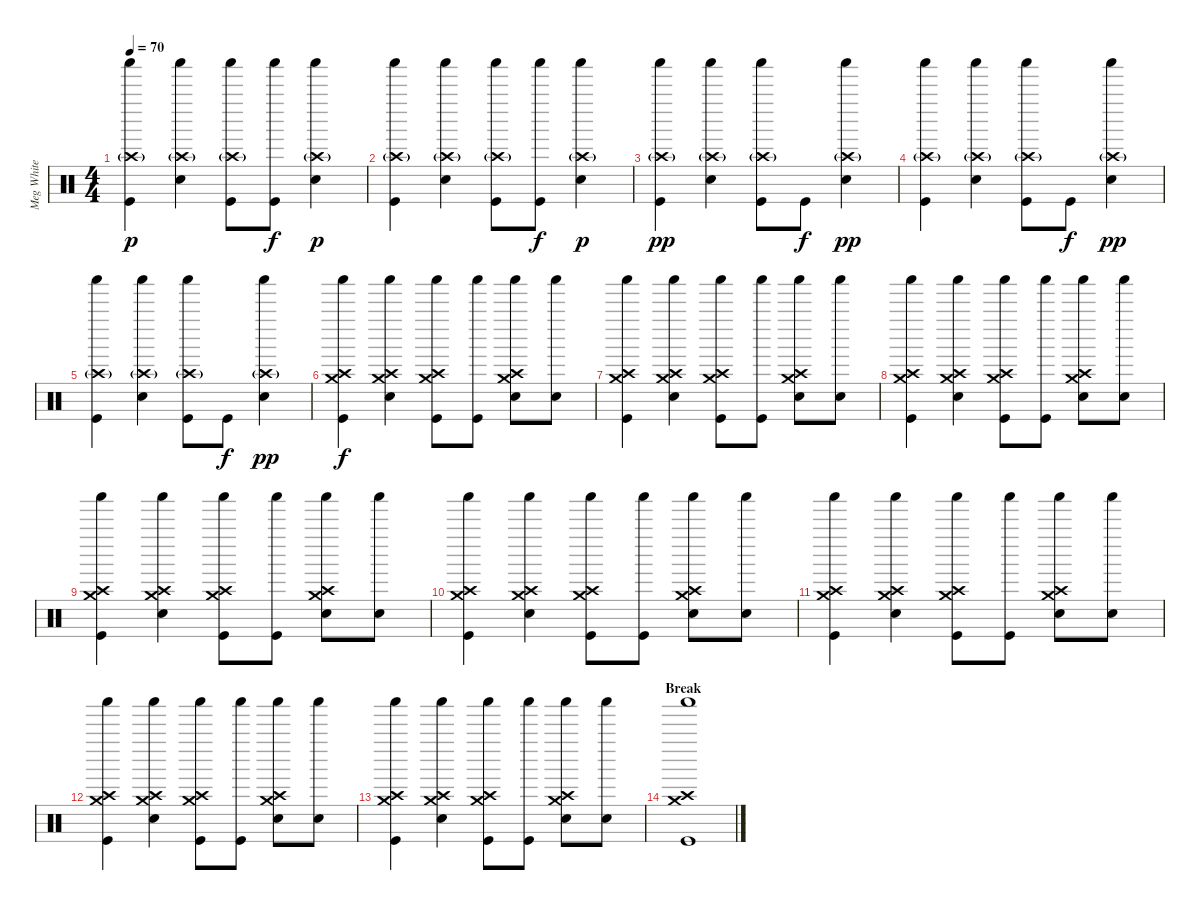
\track ("Meg White" "Meg White") {instrument percussion}
\staff {score}
\articulation defaults
\ts (4 4)
\tempo 70
\clef neutral
\ks c
("Kick (hit)" "Shaker (hit)" "Crash high (hit)"{g}).4{dy p} ("Snare (hit) 2" "Shaker (hit)" "Crash high (hit)"{g}).4 ("Kick (hit)" "Shaker (hit)" "Crash high (hit)"{g}).8 ("Kick (hit)" "Shaker (hit)").8{dy f} ("Snare (hit) 2" "Shaker (hit)" "Crash high (hit)"{g}).4{dy p} |
("Kick (hit)" "Shaker (hit)" "Crash high (hit)"{g}).4 ("Snare (hit) 2" "Shaker (hit)" "Crash high (hit)"{g}).4 ("Kick (hit)" "Shaker (hit)" "Crash high (hit)"{g}).8 ("Kick (hit)" "Shaker (hit)").8{dy f} ("Snare (hit) 2" "Shaker (hit)" "Crash high (hit)"{g}).4{dy p} |
("Kick (hit)" "Shaker (hit)" "Crash high (hit)"{g}).4{dy pp} ("Snare (hit) 2" "Shaker (hit)" "Crash high (hit)"{g}).4 ("Kick (hit)" "Shaker (hit)" "Crash high (hit)"{g}).8 "Kick (hit)".8{dy f} ("Snare (hit) 2" "Shaker (hit)" "Crash high (hit)"{g}).4{dy pp} |
("Kick (hit)" "Shaker (hit)" "Crash high (hit)"{g}).4 ("Snare (hit) 2" "Shaker (hit)" "Crash high (hit)"{g}).4 ("Kick (hit)" "Shaker (hit)" "Crash high (hit)"{g}).8 "Kick (hit)".8{dy f} ("Snare (hit) 2" "Shaker (hit)" "Crash high (hit)"{g}).4{dy pp} |
("Kick (hit)" "Shaker (hit)" "Crash high (hit)"{g}).4 ("Snare (hit) 2" "Shaker (hit)" "Crash high (hit)"{g}).4 ("Kick (hit)" "Shaker (hit)" "Crash high (hit)"{g}).8 "Kick (hit)".8{dy f} ("Snare (hit) 2" "Shaker (hit)" "Crash high (hit)"{g}).4{dy pp} |
("Kick (hit)" "Crash medium (hit)" "Shaker (hit)" "Crash high (hit)").4{dy f} ("Snare (hit) 2" "Crash medium (hit)" "Shaker (hit)" "Crash high (hit)").4 ("Kick (hit)" "Crash medium (hit)" "Shaker (hit)" "Crash high (hit)").8 ("Kick (hit)" "Shaker (hit)").8 ("Snare (hit) 2" "Crash medium (hit)" "Shaker (hit)" "Crash high (hit)").8 ("Snare (hit) 2" "Shaker (hit)").8 |
("Kick (hit)" "Crash medium (hit)" "Shaker (hit)" "Crash high (hit)").4 ("Snare (hit) 2" "Crash medium (hit)" "Shaker (hit)" "Crash high (hit)").4 ("Kick (hit)" "Crash medium (hit)" "Shaker (hit)" "Crash high (hit)").8 ("Kick (hit)" "Shaker (hit)").8 ("Snare (hit) 2" "Crash medium (hit)" "Shaker (hit)" "Crash high (hit)").8 ("Snare (hit) 2" "Shaker (hit)").8 |
("Kick (hit)" "Crash medium (hit)" "Shaker (hit)" "Crash high (hit)").4 ("Snare (hit) 2" "Crash medium (hit)" "Shaker (hit)" "Crash high (hit)").4 ("Kick (hit)" "Crash medium (hit)" "Shaker (hit)" "Crash high (hit)").8 ("Kick (hit)" "Shaker (hit)").8 ("Snare (hit) 2" "Crash medium (hit)" "Shaker (hit)" "Crash high (hit)").8 ("Snare (hit) 2" "Shaker (hit)").8 |
("Kick (hit)" "Crash medium (hit)" "Shaker (hit)" "Crash high (hit)").4 ("Snare (hit) 2" "Crash medium (hit)" "Shaker (hit)" "Crash high (hit)").4 ("Kick (hit)" "Crash medium (hit)" "Shaker (hit)" "Crash high (hit)").8 ("Kick (hit)" "Shaker (hit)").8 ("Snare (hit) 2" "Crash medium (hit)" "Shaker (hit)" "Crash high (hit)").8 ("Snare (hit) 2" "Shaker (hit)").8 |
("Kick (hit)" "Crash medium (hit)" "Shaker (hit)" "Crash high (hit)").4 ("Snare (hit) 2" "Crash medium (hit)" "Shaker (hit)" "Crash high (hit)").4 ("Kick (hit)" "Crash medium (hit)" "Shaker (hit)" "Crash high (hit)").8 ("Kick (hit)" "Shaker (hit)").8 ("Snare (hit) 2" "Crash medium (hit)" "Shaker (hit)" "Crash high (hit)").8 ("Snare (hit) 2" "Shaker (hit)").8 |
("Kick (hit)" "Crash medium (hit)" "Shaker (hit)" "Crash high (hit)").4 ("Snare (hit) 2" "Crash medium (hit)" "Shaker (hit)" "Crash high (hit)").4 ("Kick (hit)" "Crash medium (hit)" "Shaker (hit)" "Crash high (hit)").8 ("Kick (hit)" "Shaker (hit)").8 ("Snare (hit) 2" "Crash medium (hit)" "Shaker (hit)" "Crash high (hit)").8 ("Snare (hit) 2" "Shaker (hit)").8 |
("Kick (hit)" "Crash medium (hit)" "Shaker (hit)" "Crash high (hit)").4 ("Snare (hit) 2" "Crash medium (hit)" "Shaker (hit)" "Crash high (hit)").4 ("Kick (hit)" "Crash medium (hit)" "Shaker (hit)" "Crash high (hit)").8 ("Kick (hit)" "Shaker (hit)").8 ("Snare (hit) 2" "Crash medium (hit)" "Shaker (hit)" "Crash high (hit)").8 ("Snare (hit) 2" "Shaker (hit)").8 |
("Kick (hit)" "Crash medium (hit)" "Shaker (hit)" "Crash high (hit)").4 ("Snare (hit) 2" "Crash medium (hit)" "Shaker (hit)" "Crash high (hit)").4 ("Kick (hit)" "Crash medium (hit)" "Shaker (hit)" "Crash high (hit)").8 ("Kick (hit)" "Shaker (hit)").8 ("Snare (hit) 2" "Crash medium (hit)" "Shaker (hit)" "Crash high (hit)").8 ("Snare (hit) 2" "Shaker (hit)").8 |
\section ("" "Break")
("Kick (hit)" "Crash medium (hit)" "Shaker (hit)" "Crash high (hit)").1
